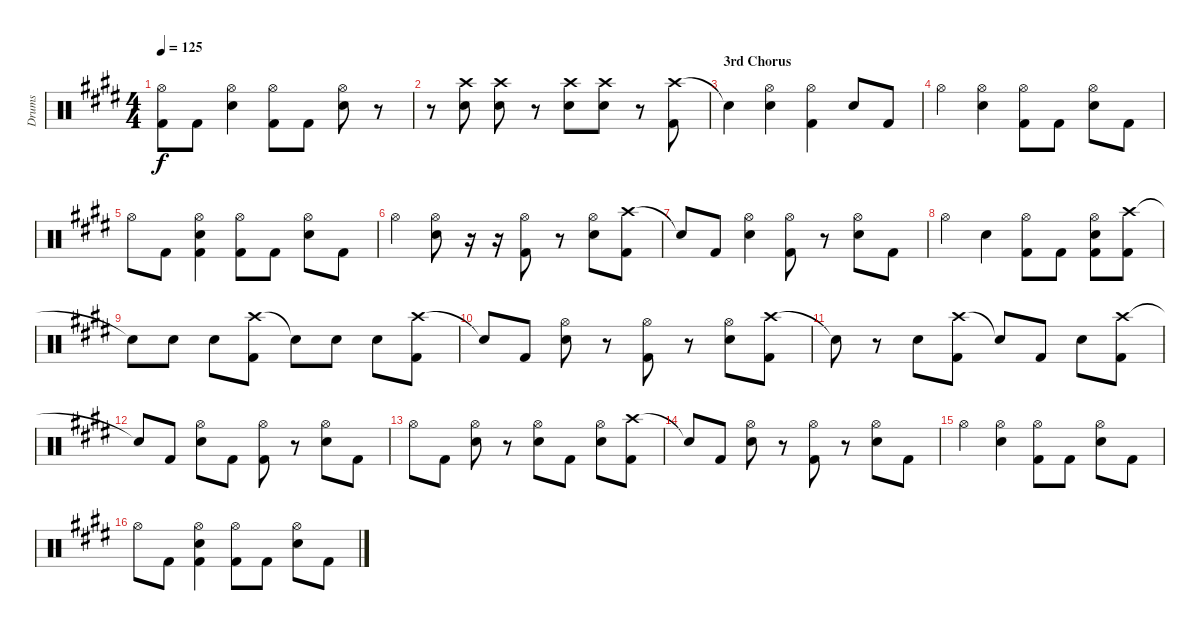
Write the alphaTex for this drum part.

\track ("Drums" "Drums") {instrument percussion}
\staff {score}
\articulation defaults
\ts (4 4)
\tempo 125
\clef neutral
\ks e
("Hi-Hat (open)"{t} "Kick (hit) 2"{t}).8{dy f} "Kick (hit) 2".8 ("Hi-Hat (open)" "Electric Snare (hit)").4 ("Hi-Hat (open)" "Kick (hit) 2").8 "Kick (hit) 2".8 ("Hi-Hat (open)" "Electric Snare (hit)").8 r.8 |
r.8 ("Crash high (hit)" "Electric Snare (hit)").8 ("Crash high (hit)" "Electric Snare (hit)").8 r.8 ("Crash high (hit)" "Electric Snare (hit)").8 ("Crash high (hit)" "Electric Snare (hit)").8 r.8 ("Crash high (hit)" "Kick (hit) 2").8 |
\section ("" "3rd Chorus")
"Snare (hit)"{t}.4 ("Hi-Hat (open)" "Electric Snare (hit)").4 ("Hi-Hat (open)" "Kick (hit) 2").4 "Electric Snare (hit)".8 "Kick (hit) 2".8 |
"Hi-Hat (open)".4 ("Hi-Hat (open)" "Electric Snare (hit)").4 ("Hi-Hat (open)" "Kick (hit) 2").8 "Kick (hit) 2".8 ("Hi-Hat (open)" "Electric Snare (hit)").8 "Kick (hit) 2".8 |
"Hi-Hat (open)".8 "Kick (hit) 2".8 ("Hi-Hat (open)" "Electric Snare (hit)" "Kick (hit) 2").4 ("Hi-Hat (open)" "Kick (hit) 2").8 "Kick (hit) 2".8 ("Hi-Hat (open)" "Electric Snare (hit)").8 "Kick (hit) 2".8 |
"Hi-Hat (open)".4 ("Hi-Hat (open)" "Electric Snare (hit)").8 r.16 r.16 ("Hi-Hat (open)" "Kick (hit) 2").8 r.8 ("Hi-Hat (open)" "Electric Snare (hit)").8 ("Crash high (hit)" "Kick (hit) 2").8 |
"Snare (hit)"{t}.8 "Kick (hit) 2".8 ("Hi-Hat (open)" "Electric Snare (hit)").4 ("Hi-Hat (open)" "Kick (hit) 2").8 r.8 ("Hi-Hat (open)" "Electric Snare (hit)").8 "Kick (hit) 2".8 |
"Hi-Hat (open)".4 "Electric Snare (hit)".4 ("Hi-Hat (open)" "Kick (hit) 2").8 "Kick (hit) 2".8 ("Hi-Hat (open)" "Electric Snare (hit)" "Kick (hit) 2").8 ("Crash high (hit)" "Kick (hit) 2").8 |
"Snare (hit)"{t}.8 "Electric Snare (hit)".8 "Electric Snare (hit)".8 ("Crash high (hit)" "Kick (hit) 2").8 "Snare (hit)"{t}.8 "Electric Snare (hit)".8 "Electric Snare (hit)".8 ("Crash high (hit)" "Kick (hit) 2").8 |
"Snare (hit)"{t}.8 "Kick (hit) 2".8 ("Hi-Hat (open)" "Electric Snare (hit)").8 r.8 ("Hi-Hat (open)" "Kick (hit) 2").8 r.8 ("Hi-Hat (open)" "Electric Snare (hit)").8 ("Crash high (hit)" "Kick (hit) 2").8 |
"Snare (hit)"{t}.8 r.8 "Electric Snare (hit)".8 ("Crash high (hit)" "Kick (hit) 2").8 "Snare (hit)"{t}.8 "Kick (hit) 2".8 "Electric Snare (hit)".8 ("Crash high (hit)" "Kick (hit) 2").8 |
"Snare (hit)"{t}.8 "Kick (hit) 2".8 ("Hi-Hat (open)" "Electric Snare (hit)").8 "Kick (hit) 2".8 ("Hi-Hat (open)" "Kick (hit) 2").8 r.8 ("Hi-Hat (open)" "Electric Snare (hit)").8 "Kick (hit) 2".8 |
"Hi-Hat (open)".8 "Kick (hit) 2".8 ("Hi-Hat (open)" "Electric Snare (hit)").8 r.8 ("Hi-Hat (open)" "Electric Snare (hit)").8 "Kick (hit) 2".8 ("Hi-Hat (open)" "Electric Snare (hit)").8 ("Crash high (hit)" "Kick (hit) 2").8 |
"Snare (hit)"{t}.8 "Kick (hit) 2".8 ("Hi-Hat (open)" "Electric Snare (hit)").8 r.8 ("Hi-Hat (open)" "Kick (hit) 2").8 r.8 ("Hi-Hat (open)" "Electric Snare (hit)").8 "Kick (hit) 2".8 |
"Hi-Hat (open)".4 ("Hi-Hat (open)" "Electric Snare (hit)").4 ("Hi-Hat (open)" "Kick (hit) 2").8 "Kick (hit) 2".8 ("Hi-Hat (open)" "Electric Snare (hit)").8 "Kick (hit) 2".8 |
"Hi-Hat (open)".8 "Kick (hit) 2".8 ("Hi-Hat (open)" "Electric Snare (hit)" "Kick (hit) 2").4 ("Hi-Hat (open)" "Kick (hit) 2").8 "Kick (hit) 2".8 ("Hi-Hat (open)" "Electric Snare (hit)").8 "Kick (hit) 2".8
